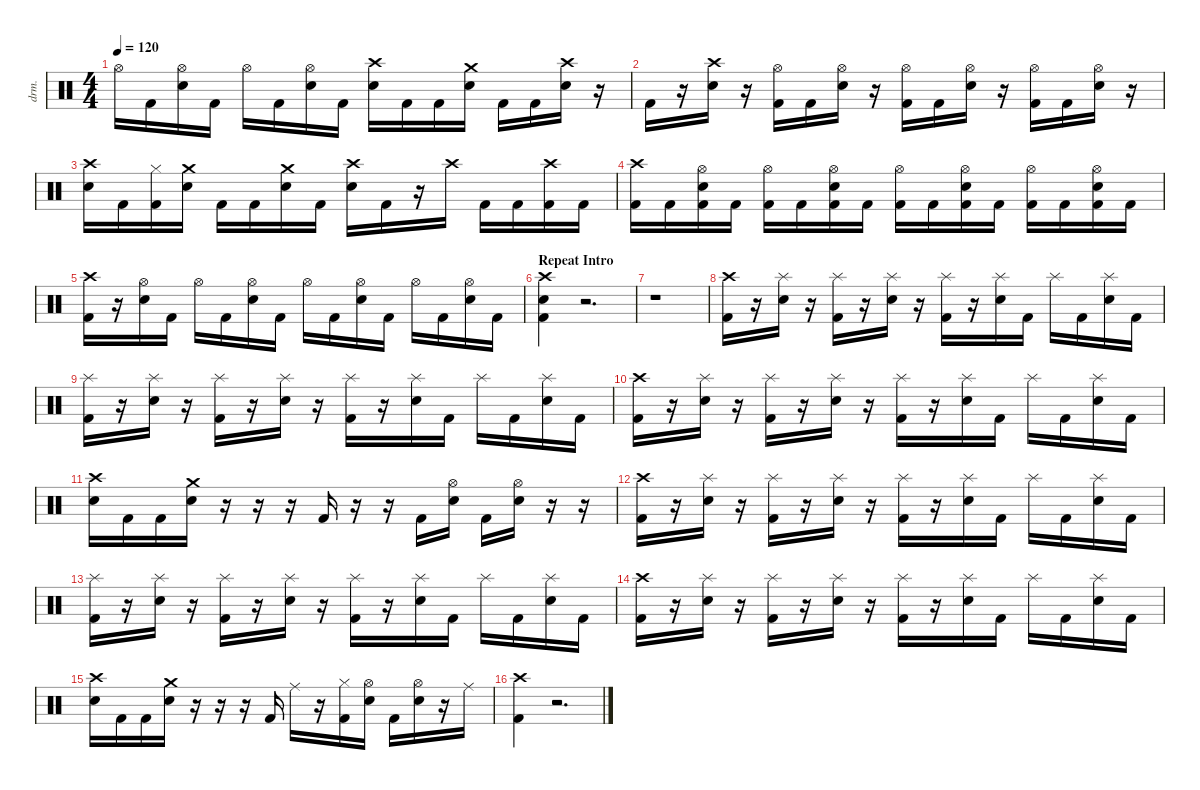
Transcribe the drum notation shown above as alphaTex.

\defaultSystemsLayout 4
\hideDynamics
\bracketExtendMode nobrackets
\track ("Drums" "drm.") {instrument percussion}
\staff {score}
\articulation defaults
\ts (4 4)
\tempo 120
\clef neutral
\ks c "Hi-Hat (open)".16{dy fff} "Kick (hit) 2".16{dy f}
("Hi-Hat (open)" "Snare (hit) 2").16{dy fff} "Kick (hit) 2".16{dy f} "Hi-Hat (open)".16{dy fff} "Kick (hit) 2".16{dy f} ("Hi-Hat (open)" "Snare (hit) 2").16{dy fff} "Kick (hit) 2".16{dy f} ("Crash high (hit)" "Snare (hit) 2").16{dy fff} "Kick (hit) 2".16{dy f} "Kick (hit) 2".16 ("Crash medium (hit)" "Snare (hit) 2").16{dy fff} "Kick (hit) 2".16{dy f} "Kick (hit) 2".16 ("Crash high (hit)" "Snare (hit) 2").16{dy fff} r.16 |
"Kick (hit) 2".16{dy f} r.16 ("Crash high (hit)" "Snare (hit) 2").16{dy fff} r.16 ("Hi-Hat (open)" "Kick (hit) 2").16 "Kick (hit) 2".16{dy f} ("Hi-Hat (open)" "Snare (hit) 2").16{dy fff} r.16 ("Hi-Hat (open)" "Kick (hit) 2").16 "Kick (hit) 2".16{dy f} ("Hi-Hat (open)" "Snare (hit) 2").16{dy fff} r.16 ("Hi-Hat (open)" "Kick (hit) 2").16 "Kick (hit) 2".16{dy f} ("Hi-Hat (open)" "Snare (hit) 2").16{dy fff} r.16 |
("Crash high (hit)" "Snare (hit) 2").16 "Kick (hit) 2".16{dy f} ("Hi-Hat (closed)" "Kick (hit) 2").16{dy fff} ("Crash medium (hit)" "Snare (hit) 2").16 "Kick (hit) 2".16{dy f} "Kick (hit) 2".16 ("Crash medium (hit)" "Snare (hit) 2").16{dy fff} "Kick (hit) 2".16{dy f} ("Crash high (hit)" "Snare (hit) 2").16{dy fff} "Kick (hit) 2".16{dy f} r.16 "Crash high (hit)".16 "Kick (hit) 2".16 "Kick (hit) 2".16 ("Crash high (hit)" "Kick (hit) 2").16{dy fff} "Kick (hit) 2".16{dy f} |
("Crash high (hit)" "Kick (hit) 2").16{dy fff} "Kick (hit) 2".16{dy f} ("Hi-Hat (open)" "Snare (hit) 2" "Kick (hit) 2").16{dy fff} "Kick (hit) 2".16{dy f} ("Hi-Hat (open)" "Kick (hit) 2").16{dy fff} "Kick (hit) 2".16{dy f} ("Hi-Hat (open)" "Snare (hit) 2" "Kick (hit) 2").16{dy fff} "Kick (hit) 2".16{dy f} ("Hi-Hat (open)" "Kick (hit) 2").16{dy fff} "Kick (hit) 2".16{dy f} ("Hi-Hat (open)" "Snare (hit) 2" "Kick (hit) 2").16{dy fff} "Kick (hit) 2".16{dy f} ("Hi-Hat (open)" "Kick (hit) 2").16{dy fff} "Kick (hit) 2".16{dy f} ("Hi-Hat (open)" "Snare (hit) 2" "Kick (hit) 2").16{dy fff} "Kick (hit) 2".16{dy f} |
("Crash high (hit)" "Kick (hit) 2").16{dy fff} r.16 ("Hi-Hat (open)" "Snare (hit) 2").16 "Kick (hit) 2".16{dy f} "Hi-Hat (open)".16{dy fff} "Kick (hit) 2".16{dy f} ("Hi-Hat (open)" "Snare (hit) 2").16{dy fff} "Kick (hit) 2".16{dy f} "Hi-Hat (open)".16{dy fff} "Kick (hit) 2".16{dy f} ("Hi-Hat (open)" "Snare (hit) 2").16{dy fff} "Kick (hit) 2".16{dy f} "Hi-Hat (open)".16{dy fff} "Kick (hit) 2".16{dy f} ("Hi-Hat (open)" "Snare (hit) 2").16{dy fff} "Kick (hit) 2".16{dy f} |
\section ("" "Repeat Intro")
("Crash high (hit)" "Snare (hit) 2" "Kick (hit) 2").4{dy fff} r.2{d} |
r.1 |
("Crash high (hit)" "Kick (hit) 2").16 r.16 ("Splash (hit)" "Snare (hit) 2").16 r.16 ("Splash (hit)" "Kick (hit) 2").16 r.16 ("Splash (hit)" "Snare (hit) 2").16 r.16 ("Splash (hit)" "Kick (hit) 2").16 r.16 ("Splash (hit)" "Snare (hit) 2").16 "Kick (hit) 2".16{dy f} "Splash (hit)".16{dy fff} "Kick (hit) 2".16{dy f} ("Splash (hit)" "Snare (hit) 2").16{dy fff} "Kick (hit) 2".16{dy f} |
("Splash (hit)" "Kick (hit) 2").16{dy fff} r.16 ("Splash (hit)" "Snare (hit) 2").16 r.16 ("Splash (hit)" "Kick (hit) 2").16 r.16 ("Splash (hit)" "Snare (hit) 2").16 r.16 ("Splash (hit)" "Kick (hit) 2").16 r.16 ("Splash (hit)" "Snare (hit) 2").16 "Kick (hit) 2".16{dy f} "Splash (hit)".16{dy fff} "Kick (hit) 2".16{dy f} ("Splash (hit)" "Snare (hit) 2").16{dy fff} "Kick (hit) 2".16{dy f} |
("Crash high (hit)" "Kick (hit) 2").16{dy fff} r.16 ("Splash (hit)" "Snare (hit) 2").16 r.16 ("Splash (hit)" "Kick (hit) 2").16 r.16 ("Splash (hit)" "Snare (hit) 2").16 r.16 ("Splash (hit)" "Kick (hit) 2").16 r.16 ("Splash (hit)" "Snare (hit) 2").16 "Kick (hit) 2".16{dy f} "Splash (hit)".16{dy fff} "Kick (hit) 2".16{dy f} ("Splash (hit)" "Snare (hit) 2").16{dy fff} "Kick (hit) 2".16{dy f} |
("Crash high (hit)" "Snare (hit) 2").16{dy fff} "Kick (hit) 2".16{dy f} "Kick (hit) 2".16 ("Crash medium (hit)" "Snare (hit) 2").16{dy fff} r.16 r.16 r.16 "Kick (hit) 2".16{dy f} r.16 r.16 "Kick (hit) 2".16 ("Hi-Hat (open)" "Snare (hit) 2").16{dy fff} "Kick (hit) 2".16{dy f} ("Hi-Hat (open)" "Snare (hit) 2").16{dy fff} r.16 r.16 |
("Crash high (hit)" "Kick (hit) 2").16 r.16 ("Splash (hit)" "Snare (hit) 2").16 r.16 ("Splash (hit)" "Kick (hit) 2").16 r.16 ("Splash (hit)" "Snare (hit) 2").16 r.16 ("Splash (hit)" "Kick (hit) 2").16 r.16 ("Splash (hit)" "Snare (hit) 2").16 "Kick (hit) 2".16{dy f} "Splash (hit)".16{dy fff} "Kick (hit) 2".16{dy f} ("Splash (hit)" "Snare (hit) 2").16{dy fff} "Kick (hit) 2".16{dy f} |
("Splash (hit)" "Kick (hit) 2").16{dy fff} r.16 ("Splash (hit)" "Snare (hit) 2").16 r.16 ("Splash (hit)" "Kick (hit) 2").16 r.16 ("Splash (hit)" "Snare (hit) 2").16 r.16 ("Splash (hit)" "Kick (hit) 2").16 r.16 ("Splash (hit)" "Snare (hit) 2").16 "Kick (hit) 2".16{dy f} "Splash (hit)".16{dy fff} "Kick (hit) 2".16{dy f} ("Splash (hit)" "Snare (hit) 2").16{dy fff} "Kick (hit) 2".16{dy f} |
("Crash high (hit)" "Kick (hit) 2").16{dy fff} r.16 ("Splash (hit)" "Snare (hit) 2").16 r.16 ("Splash (hit)" "Kick (hit) 2").16 r.16 ("Splash (hit)" "Snare (hit) 2").16 r.16 ("Splash (hit)" "Kick (hit) 2").16 r.16 ("Splash (hit)" "Snare (hit) 2").16 "Kick (hit) 2".16{dy f} "Splash (hit)".16{dy fff} "Kick (hit) 2".16{dy f} ("Splash (hit)" "Snare (hit) 2").16{dy fff} "Kick (hit) 2".16{dy f} |
("Crash high (hit)" "Snare (hit) 2").16{dy fff} "Kick (hit) 2".16{dy f} "Kick (hit) 2".16 ("Crash medium (hit)" "Snare (hit) 2").16{dy fff} r.16 r.16 r.16 "Kick (hit) 2".16{dy f} "Ride (middle)".16{dy fff} r.16 ("Hi-Hat (closed)" "Kick (hit) 2").16 ("Hi-Hat (open)" "Snare (hit) 2").16 "Kick (hit) 2".16{dy f} ("Hi-Hat (open)" "Snare (hit) 2").16{dy fff} r.16 "Ride (middle)".16 |
("Crash high (hit)" "Kick (hit) 2").4 r.2{d}
